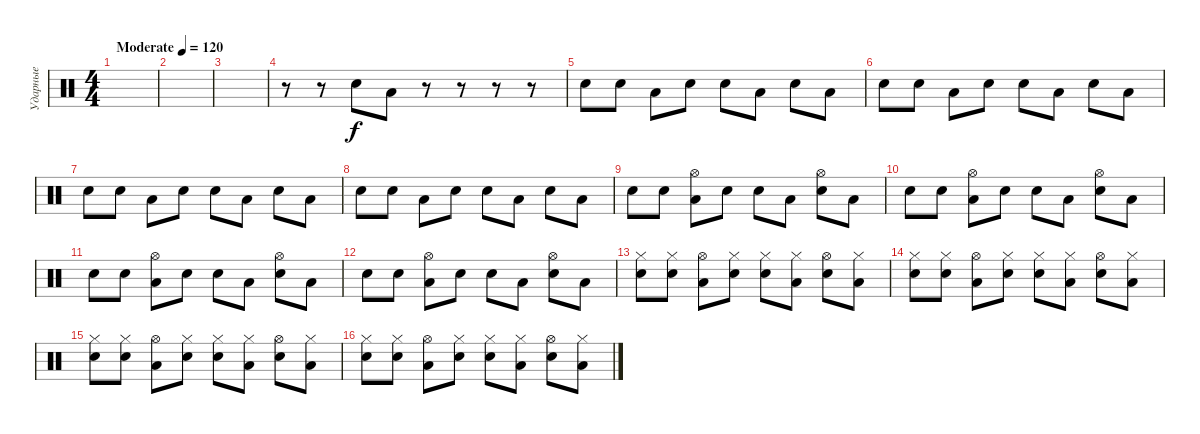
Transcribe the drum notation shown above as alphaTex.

\track ("Ударные" "Ударные") {instrument percussion}
\staff {score}
\articulation defaults
\ts (4 4)
\tempo (120 "Moderate")
\clef neutral
\ks c
|
|
|
r.8 r.8 "Snare (hit) 2".8 "Low Tom (hit)".8 r.8 r.8 r.8 r.8 |
"Snare (hit) 2".8 "Snare (hit) 2".8 "Low Tom (hit)".8 "Snare (hit) 2".8 "Snare (hit) 2".8 "Low Tom (hit)".8 "Snare (hit) 2".8 "Low Tom (hit)".8 |
"Snare (hit) 2".8 "Snare (hit) 2".8 "Low Tom (hit)".8 "Snare (hit) 2".8 "Snare (hit) 2".8 "Low Tom (hit)".8 "Snare (hit) 2".8 "Low Tom (hit)".8 |
"Snare (hit) 2".8 "Snare (hit) 2".8 "Low Tom (hit)".8 "Snare (hit) 2".8 "Snare (hit) 2".8 "Low Tom (hit)".8 "Snare (hit) 2".8 "Low Tom (hit)".8 |
"Snare (hit) 2".8 "Snare (hit) 2".8 "Low Tom (hit)".8 "Snare (hit) 2".8 "Snare (hit) 2".8 "Low Tom (hit)".8 "Snare (hit) 2".8 "Low Tom (hit)".8 |
"Snare (hit) 2".8 "Snare (hit) 2".8 ("Low Tom (hit)" "Hi-Hat (open)").8 "Snare (hit) 2".8 "Snare (hit) 2".8 "Low Tom (hit)".8 ("Snare (hit) 2" "Hi-Hat (open)").8 "Low Tom (hit)".8 |
"Snare (hit) 2".8 "Snare (hit) 2".8 ("Low Tom (hit)" "Hi-Hat (open)").8 "Snare (hit) 2".8 "Snare (hit) 2".8 "Low Tom (hit)".8 ("Snare (hit) 2" "Hi-Hat (open)").8 "Low Tom (hit)".8 |
"Snare (hit) 2".8 "Snare (hit) 2".8 ("Low Tom (hit)" "Hi-Hat (open)").8 "Snare (hit) 2".8 "Snare (hit) 2".8 "Low Tom (hit)".8 ("Snare (hit) 2" "Hi-Hat (open)").8 "Low Tom (hit)".8 |
"Snare (hit) 2".8 "Snare (hit) 2".8 ("Low Tom (hit)" "Hi-Hat (open)").8 "Snare (hit) 2".8 "Snare (hit) 2".8 "Low Tom (hit)".8 ("Snare (hit) 2" "Hi-Hat (open)").8 "Low Tom (hit)".8 |
("Snare (hit) 2" "Hi-Hat (closed)").8 ("Snare (hit) 2" "Hi-Hat (closed)").8 ("Low Tom (hit)" "Hi-Hat (open)").8 ("Snare (hit) 2" "Hi-Hat (closed)").8 ("Snare (hit) 2" "Hi-Hat (closed)").8 ("Low Tom (hit)" "Hi-Hat (closed)").8 ("Snare (hit) 2" "Hi-Hat (open)").8 ("Low Tom (hit)" "Hi-Hat (closed)").8 |
("Snare (hit) 2" "Hi-Hat (closed)").8 ("Snare (hit) 2" "Hi-Hat (closed)").8 ("Low Tom (hit)" "Hi-Hat (open)").8 ("Snare (hit) 2" "Hi-Hat (closed)").8 ("Snare (hit) 2" "Hi-Hat (closed)").8 ("Low Tom (hit)" "Hi-Hat (closed)").8 ("Snare (hit) 2" "Hi-Hat (open)").8 ("Low Tom (hit)" "Hi-Hat (closed)").8 |
("Snare (hit) 2" "Hi-Hat (closed)").8 ("Snare (hit) 2" "Hi-Hat (closed)").8 ("Low Tom (hit)" "Hi-Hat (open)").8 ("Snare (hit) 2" "Hi-Hat (closed)").8 ("Snare (hit) 2" "Hi-Hat (closed)").8 ("Low Tom (hit)" "Hi-Hat (closed)").8 ("Snare (hit) 2" "Hi-Hat (open)").8 ("Low Tom (hit)" "Hi-Hat (closed)").8 |
("Snare (hit) 2" "Hi-Hat (closed)").8 ("Snare (hit) 2" "Hi-Hat (closed)").8 ("Low Tom (hit)" "Hi-Hat (open)").8 ("Snare (hit) 2" "Hi-Hat (closed)").8 ("Snare (hit) 2" "Hi-Hat (closed)").8 ("Low Tom (hit)" "Hi-Hat (closed)").8 ("Snare (hit) 2" "Hi-Hat (open)").8 ("Low Tom (hit)" "Hi-Hat (closed)").8
